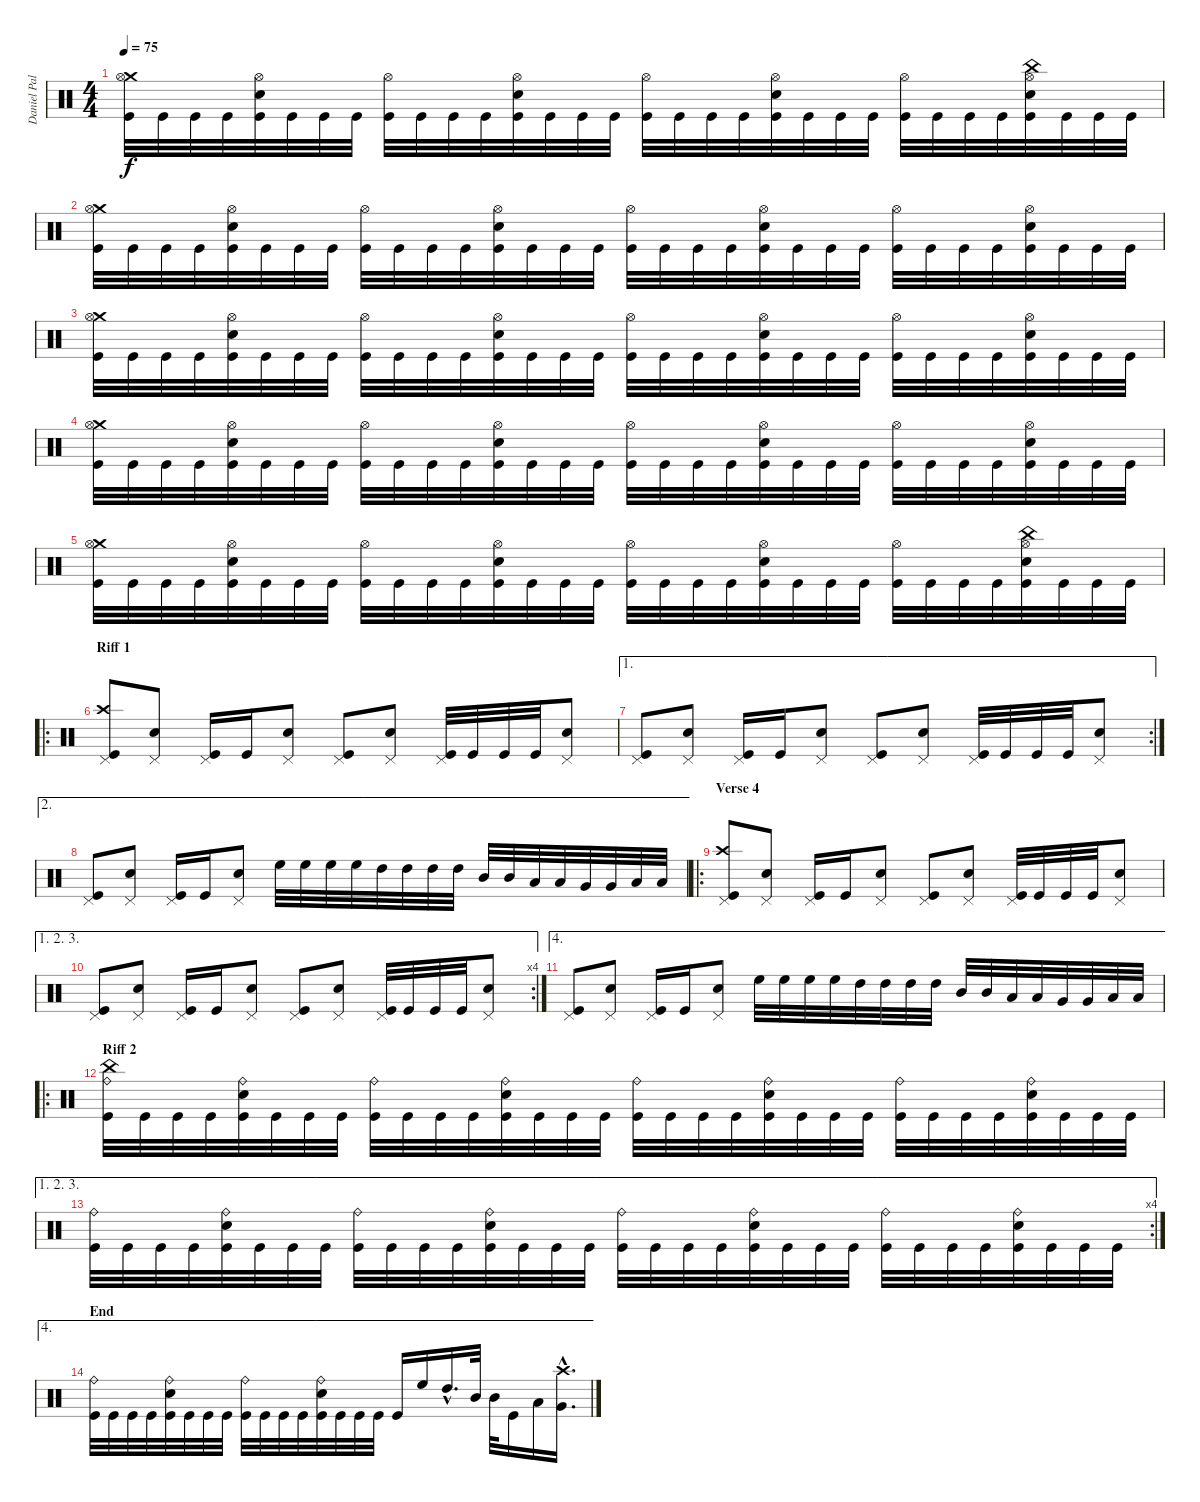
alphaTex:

\track ("Daniel Pal" "Daniel Pal") {instrument percussion}
\staff {score}
\articulation defaults
\ts (4 4)
\tempo 75
\clef neutral
\ks c
("Crash medium (hit)" "Hi-Hat (open)" "Kick (hit)").32{dy f} "Kick (hit)".32 "Kick (hit)".32 "Kick (hit)".32 ("Hi-Hat (open)" "Electric Snare (hit)" "Kick (hit)").32 "Kick (hit)".32 "Kick (hit)".32 "Kick (hit)".32 ("Hi-Hat (open)" "Kick (hit)").32 "Kick (hit)".32 "Kick (hit)".32 "Kick (hit)".32 ("Hi-Hat (open)" "Electric Snare (hit)" "Kick (hit)").32 "Kick (hit)".32 "Kick (hit)".32 "Kick (hit)".32 ("Hi-Hat (open)" "Kick (hit)").32 "Kick (hit)".32 "Kick (hit)".32 "Kick (hit)".32 ("Hi-Hat (open)" "Electric Snare (hit)" "Kick (hit)").32 "Kick (hit)".32 "Kick (hit)".32 "Kick (hit)".32 ("Hi-Hat (open)" "Kick (hit)").32 "Kick (hit)".32 "Kick (hit)".32 "Kick (hit)".32 ("China (hit)" "Hi-Hat (open)" "Electric Snare (hit)" "Kick (hit)").32 "Kick (hit)".32 "Kick (hit)".32 "Kick (hit)".32 |
("Crash medium (hit)" "Hi-Hat (open)" "Kick (hit)").32 "Kick (hit)".32 "Kick (hit)".32 "Kick (hit)".32 ("Hi-Hat (open)" "Electric Snare (hit)" "Kick (hit)").32 "Kick (hit)".32 "Kick (hit)".32 "Kick (hit)".32 ("Hi-Hat (open)" "Kick (hit)").32 "Kick (hit)".32 "Kick (hit)".32 "Kick (hit)".32 ("Hi-Hat (open)" "Electric Snare (hit)" "Kick (hit)").32 "Kick (hit)".32 "Kick (hit)".32 "Kick (hit)".32 ("Hi-Hat (open)" "Kick (hit)").32 "Kick (hit)".32 "Kick (hit)".32 "Kick (hit)".32 ("Hi-Hat (open)" "Electric Snare (hit)" "Kick (hit)").32 "Kick (hit)".32 "Kick (hit)".32 "Kick (hit)".32 ("Hi-Hat (open)" "Kick (hit)").32 "Kick (hit)".32 "Kick (hit)".32 "Kick (hit)".32 ("Hi-Hat (open)" "Electric Snare (hit)" "Kick (hit)").32 "Kick (hit)".32 "Kick (hit)".32 "Kick (hit)".32 |
("Crash medium (hit)" "Hi-Hat (open)" "Kick (hit)").32 "Kick (hit)".32 "Kick (hit)".32 "Kick (hit)".32 ("Hi-Hat (open)" "Electric Snare (hit)" "Kick (hit)").32 "Kick (hit)".32 "Kick (hit)".32 "Kick (hit)".32 ("Hi-Hat (open)" "Kick (hit)").32 "Kick (hit)".32 "Kick (hit)".32 "Kick (hit)".32 ("Hi-Hat (open)" "Electric Snare (hit)" "Kick (hit)").32 "Kick (hit)".32 "Kick (hit)".32 "Kick (hit)".32 ("Hi-Hat (open)" "Kick (hit)").32 "Kick (hit)".32 "Kick (hit)".32 "Kick (hit)".32 ("Hi-Hat (open)" "Electric Snare (hit)" "Kick (hit)").32 "Kick (hit)".32 "Kick (hit)".32 "Kick (hit)".32 ("Hi-Hat (open)" "Kick (hit)").32 "Kick (hit)".32 "Kick (hit)".32 "Kick (hit)".32 ("Hi-Hat (open)" "Electric Snare (hit)" "Kick (hit)").32 "Kick (hit)".32 "Kick (hit)".32 "Kick (hit)".32 |
("Crash medium (hit)" "Hi-Hat (open)" "Kick (hit)").32 "Kick (hit)".32 "Kick (hit)".32 "Kick (hit)".32 ("Hi-Hat (open)" "Electric Snare (hit)" "Kick (hit)").32 "Kick (hit)".32 "Kick (hit)".32 "Kick (hit)".32 ("Hi-Hat (open)" "Kick (hit)").32 "Kick (hit)".32 "Kick (hit)".32 "Kick (hit)".32 ("Hi-Hat (open)" "Electric Snare (hit)" "Kick (hit)").32 "Kick (hit)".32 "Kick (hit)".32 "Kick (hit)".32 ("Hi-Hat (open)" "Kick (hit)").32 "Kick (hit)".32 "Kick (hit)".32 "Kick (hit)".32 ("Hi-Hat (open)" "Electric Snare (hit)" "Kick (hit)").32 "Kick (hit)".32 "Kick (hit)".32 "Kick (hit)".32 ("Hi-Hat (open)" "Kick (hit)").32 "Kick (hit)".32 "Kick (hit)".32 "Kick (hit)".32 ("Hi-Hat (open)" "Electric Snare (hit)" "Kick (hit)").32 "Kick (hit)".32 "Kick (hit)".32 "Kick (hit)".32 |
("Crash medium (hit)" "Hi-Hat (open)" "Kick (hit)").32 "Kick (hit)".32 "Kick (hit)".32 "Kick (hit)".32 ("Hi-Hat (open)" "Electric Snare (hit)" "Kick (hit)").32 "Kick (hit)".32 "Kick (hit)".32 "Kick (hit)".32 ("Hi-Hat (open)" "Kick (hit)").32 "Kick (hit)".32 "Kick (hit)".32 "Kick (hit)".32 ("Hi-Hat (open)" "Electric Snare (hit)" "Kick (hit)").32 "Kick (hit)".32 "Kick (hit)".32 "Kick (hit)".32 ("Hi-Hat (open)" "Kick (hit)").32 "Kick (hit)".32 "Kick (hit)".32 "Kick (hit)".32 ("Hi-Hat (open)" "Electric Snare (hit)" "Kick (hit)").32 "Kick (hit)".32 "Kick (hit)".32 "Kick (hit)".32 ("Hi-Hat (open)" "Kick (hit)").32 "Kick (hit)".32 "Kick (hit)".32 "Kick (hit)".32 ("China (hit)" "Hi-Hat (open)" "Electric Snare (hit)" "Kick (hit)").32 "Kick (hit)".32 "Kick (hit)".32 "Kick (hit)".32 |
\ro
\section ("" "Riff 1")
("Crash high (hit)" "Pedal Hi-Hat (hit)" "Kick (hit)").8 ("Pedal Hi-Hat (hit)" "Electric Snare (hit)").8 ("Pedal Hi-Hat (hit)" "Kick (hit)").16 "Kick (hit)".16 ("Pedal Hi-Hat (hit)" "Electric Snare (hit)").8 ("Pedal Hi-Hat (hit)" "Kick (hit)").8 ("Pedal Hi-Hat (hit)" "Electric Snare (hit)").8 ("Pedal Hi-Hat (hit)" "Kick (hit)").32 "Kick (hit)".32 "Kick (hit)".32 "Kick (hit)".32 ("Pedal Hi-Hat (hit)" "Electric Snare (hit)").8 |
\ae 1
\rc 2
("Pedal Hi-Hat (hit)" "Kick (hit)").8 ("Pedal Hi-Hat (hit)" "Electric Snare (hit)").8 ("Pedal Hi-Hat (hit)" "Kick (hit)").16 "Kick (hit)".16 ("Pedal Hi-Hat (hit)" "Electric Snare (hit)").8 ("Pedal Hi-Hat (hit)" "Kick (hit)").8 ("Pedal Hi-Hat (hit)" "Electric Snare (hit)").8 ("Pedal Hi-Hat (hit)" "Kick (hit)").32 "Kick (hit)".32 "Kick (hit)".32 "Kick (hit)".32 ("Pedal Hi-Hat (hit)" "Electric Snare (hit)").8 |
\ae 2
("Pedal Hi-Hat (hit)" "Kick (hit)").8 ("Pedal Hi-Hat (hit)" "Electric Snare (hit)").8 ("Pedal Hi-Hat (hit)" "Kick (hit)").16 "Kick (hit)".16 ("Pedal Hi-Hat (hit)" "Electric Snare (hit)").8 "High Floor Tom (hit)".32 "High Floor Tom (hit)".32 "High Floor Tom (hit)".32 "High Floor Tom (hit)".32 "High Tom (hit)".32 "High Tom (hit)".32 "High Tom (hit)".32 "High Tom (hit)".32 "Mid Tom (hit)".32 "Mid Tom (hit)".32 "Low Tom (hit)".32 "Low Tom (hit)".32 "Very Low Tom (hit)".32 "Very Low Tom (hit)".32 "Low Floor Tom (hit)".32 "Low Floor Tom (hit)".32 |
\ro
\section ("" "Verse 4")
("Crash high (hit)" "Pedal Hi-Hat (hit)" "Kick (hit)").8 ("Pedal Hi-Hat (hit)" "Electric Snare (hit)").8 ("Pedal Hi-Hat (hit)" "Kick (hit)").16 "Kick (hit)".16 ("Pedal Hi-Hat (hit)" "Electric Snare (hit)").8 ("Pedal Hi-Hat (hit)" "Kick (hit)").8 ("Pedal Hi-Hat (hit)" "Electric Snare (hit)").8 ("Pedal Hi-Hat (hit)" "Kick (hit)").32 "Kick (hit)".32 "Kick (hit)".32 "Kick (hit)".32 ("Pedal Hi-Hat (hit)" "Electric Snare (hit)").8 |
\ae (1 2 3)
\rc 4
("Pedal Hi-Hat (hit)" "Kick (hit)").8 ("Pedal Hi-Hat (hit)" "Electric Snare (hit)").8 ("Pedal Hi-Hat (hit)" "Kick (hit)").16 "Kick (hit)".16 ("Pedal Hi-Hat (hit)" "Electric Snare (hit)").8 ("Pedal Hi-Hat (hit)" "Kick (hit)").8 ("Pedal Hi-Hat (hit)" "Electric Snare (hit)").8 ("Pedal Hi-Hat (hit)" "Kick (hit)").32 "Kick (hit)".32 "Kick (hit)".32 "Kick (hit)".32 ("Pedal Hi-Hat (hit)" "Electric Snare (hit)").8 |
\ae 4
("Pedal Hi-Hat (hit)" "Kick (hit)").8 ("Pedal Hi-Hat (hit)" "Electric Snare (hit)").8 ("Pedal Hi-Hat (hit)" "Kick (hit)").16 "Kick (hit)".16 ("Pedal Hi-Hat (hit)" "Electric Snare (hit)").8 "High Floor Tom (hit)".32 "High Floor Tom (hit)".32 "High Floor Tom (hit)".32 "High Floor Tom (hit)".32 "High Tom (hit)".32 "High Tom (hit)".32 "High Tom (hit)".32 "High Tom (hit)".32 "Mid Tom (hit)".32 "Mid Tom (hit)".32 "Low Tom (hit)".32 "Low Tom (hit)".32 "Very Low Tom (hit)".32 "Very Low Tom (hit)".32 "Low Floor Tom (hit)".32 "Low Floor Tom (hit)".32 |
\ro
\section ("" "Riff 2")
("China (hit)" "Ride (bell)" "Kick (hit)").32 "Kick (hit)".32 "Kick (hit)".32 "Kick (hit)".32 ("Ride (bell)" "Electric Snare (hit)" "Kick (hit)").32 "Kick (hit)".32 "Kick (hit)".32 "Kick (hit)".32 ("Ride (bell)" "Kick (hit)").32 "Kick (hit)".32 "Kick (hit)".32 "Kick (hit)".32 ("Ride (bell)" "Electric Snare (hit)" "Kick (hit)").32 "Kick (hit)".32 "Kick (hit)".32 "Kick (hit)".32 ("Ride (bell)" "Kick (hit)").32 "Kick (hit)".32 "Kick (hit)".32 "Kick (hit)".32 ("Ride (bell)" "Electric Snare (hit)" "Kick (hit)").32 "Kick (hit)".32 "Kick (hit)".32 "Kick (hit)".32 ("Ride (bell)" "Kick (hit)").32 "Kick (hit)".32 "Kick (hit)".32 "Kick (hit)".32 ("Ride (bell)" "Electric Snare (hit)" "Kick (hit)").32 "Kick (hit)".32 "Kick (hit)".32 "Kick (hit)".32 |
\ae (1 2 3)
\rc 4
("Ride (bell)" "Kick (hit)").32 "Kick (hit)".32 "Kick (hit)".32 "Kick (hit)".32 ("Ride (bell)" "Electric Snare (hit)" "Kick (hit)").32 "Kick (hit)".32 "Kick (hit)".32 "Kick (hit)".32 ("Ride (bell)" "Kick (hit)").32 "Kick (hit)".32 "Kick (hit)".32 "Kick (hit)".32 ("Ride (bell)" "Electric Snare (hit)" "Kick (hit)").32 "Kick (hit)".32 "Kick (hit)".32 "Kick (hit)".32 ("Ride (bell)" "Kick (hit)").32 "Kick (hit)".32 "Kick (hit)".32 "Kick (hit)".32 ("Ride (bell)" "Electric Snare (hit)" "Kick (hit)").32 "Kick (hit)".32 "Kick (hit)".32 "Kick (hit)".32 ("Ride (bell)" "Kick (hit)").32 "Kick (hit)".32 "Kick (hit)".32 "Kick (hit)".32 ("Ride (bell)" "Electric Snare (hit)" "Kick (hit)").32 "Kick (hit)".32 "Kick (hit)".32 "Kick (hit)".32 |
\ae 4
\section ("" "End")
("Ride (bell)" "Kick (hit)").32 "Kick (hit)".32 "Kick (hit)".32 "Kick (hit)".32 ("Ride (bell)" "Electric Snare (hit)" "Kick (hit)").32 "Kick (hit)".32 "Kick (hit)".32 "Kick (hit)".32 ("Ride (bell)" "Kick (hit)").32 "Kick (hit)".32 "Kick (hit)".32 "Kick (hit)".32 ("Ride (bell)" "Electric Snare (hit)" "Kick (hit)").32 "Kick (hit)".32 "Kick (hit)".32 "Kick (hit)".32 "Kick (hit)".16 "High Floor Tom (hit)".16 "High Tom (hit)"{hac}.16{d} "Mid Tom (hit)".32 "Mid Tom (hit)".32 "Kick (hit)".16 "Low Tom (hit)".16 ("Crash high (hit)"{hac} "Very Low Tom (hit)"{hac}).16{d}
